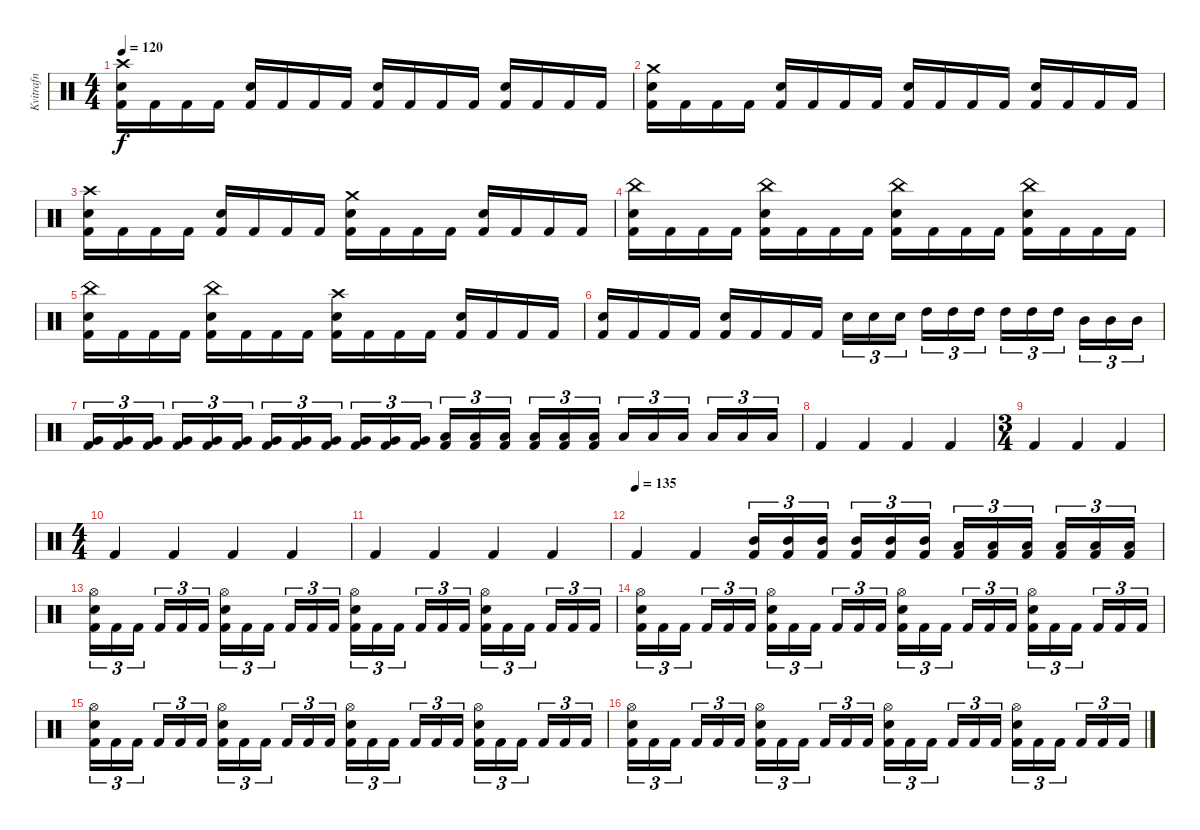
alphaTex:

\track ("Kvitrafn" "Kvitrafn") {instrument percussion}
\staff {score}
\articulation defaults
\ts (4 4)
\tempo 120
\clef neutral
\ks c
("Crash high (hit)" "Electric Snare (hit)" "Kick (hit) 2").16{dy f} "Kick (hit) 2".16 "Kick (hit) 2".16 "Kick (hit) 2".16 ("Electric Snare (hit)" "Kick (hit) 2").16 "Kick (hit) 2".16 "Kick (hit) 2".16 "Kick (hit) 2".16 ("Electric Snare (hit)" "Kick (hit) 2").16 "Kick (hit) 2".16 "Kick (hit) 2".16 "Kick (hit) 2".16 ("Electric Snare (hit)" "Kick (hit) 2").16 "Kick (hit) 2".16 "Kick (hit) 2".16 "Kick (hit) 2".16 |
("Crash medium (hit)" "Electric Snare (hit)" "Kick (hit) 2").16 "Kick (hit) 2".16 "Kick (hit) 2".16 "Kick (hit) 2".16 ("Electric Snare (hit)" "Kick (hit) 2").16 "Kick (hit) 2".16 "Kick (hit) 2".16 "Kick (hit) 2".16 ("Electric Snare (hit)" "Kick (hit) 2").16 "Kick (hit) 2".16 "Kick (hit) 2".16 "Kick (hit) 2".16 ("Electric Snare (hit)" "Kick (hit) 2").16 "Kick (hit) 2".16 "Kick (hit) 2".16 "Kick (hit) 2".16 |
("Crash high (hit)" "Electric Snare (hit)" "Kick (hit) 2").16 "Kick (hit) 2".16 "Kick (hit) 2".16 "Kick (hit) 2".16 ("Electric Snare (hit)" "Kick (hit) 2").16 "Kick (hit) 2".16 "Kick (hit) 2".16 "Kick (hit) 2".16 ("Crash medium (hit)" "Electric Snare (hit)" "Kick (hit) 2").16 "Kick (hit) 2".16 "Kick (hit) 2".16 "Kick (hit) 2".16 ("Electric Snare (hit)" "Kick (hit) 2").16 "Kick (hit) 2".16 "Kick (hit) 2".16 "Kick (hit) 2".16 |
("China (hit)" "Electric Snare (hit)" "Kick (hit) 2").16 "Kick (hit) 2".16 "Kick (hit) 2".16 "Kick (hit) 2".16 ("China (hit)" "Electric Snare (hit)" "Kick (hit) 2").16 "Kick (hit) 2".16 "Kick (hit) 2".16 "Kick (hit) 2".16 ("China (hit)" "Electric Snare (hit)" "Kick (hit) 2").16 "Kick (hit) 2".16 "Kick (hit) 2".16 "Kick (hit) 2".16 ("China (hit)" "Electric Snare (hit)" "Kick (hit) 2").16 "Kick (hit) 2".16 "Kick (hit) 2".16 "Kick (hit) 2".16 |
("China (hit)" "Electric Snare (hit)" "Kick (hit) 2").16 "Kick (hit) 2".16 "Kick (hit) 2".16 "Kick (hit) 2".16 ("China (hit)" "Electric Snare (hit)" "Kick (hit) 2").16 "Kick (hit) 2".16 "Kick (hit) 2".16 "Kick (hit) 2".16 ("Crash high (hit)" "Electric Snare (hit)" "Kick (hit) 2").16 "Kick (hit) 2".16 "Kick (hit) 2".16 "Kick (hit) 2".16 ("Electric Snare (hit)" "Kick (hit) 2").16 "Kick (hit) 2".16 "Kick (hit) 2".16 "Kick (hit) 2".16 |
("Electric Snare (hit)" "Kick (hit) 2").16 "Kick (hit) 2".16 "Kick (hit) 2".16 "Kick (hit) 2".16 ("Electric Snare (hit)" "Kick (hit) 2").16 "Kick (hit) 2".16 "Kick (hit) 2".16 "Kick (hit) 2".16 "Electric Snare (hit)".16{tu (3 2)} "Electric Snare (hit)".16{tu (3 2)} "Electric Snare (hit)".16{tu (3 2) beam splitsecondary} "High Tom (hit)".16{tu (3 2)} "High Tom (hit)".16{tu (3 2)} "High Tom (hit)".16{tu (3 2)} "High Tom (hit)".16{tu (3 2)} "High Tom (hit)".16{tu (3 2)} "High Tom (hit)".16{tu (3 2) beam splitsecondary} "Mid Tom (hit)".16{tu (3 2)} "Mid Tom (hit)".16{tu (3 2)} "Mid Tom (hit)".16{tu (3 2)} |
("Very Low Tom (hit)" "Kick (hit) 2").16{tu (3 2)} ("Very Low Tom (hit)" "Kick (hit) 2").16{tu (3 2)} ("Very Low Tom (hit)" "Kick (hit) 2").16{tu (3 2) beam splitsecondary} ("Very Low Tom (hit)" "Kick (hit) 2").16{tu (3 2)} ("Very Low Tom (hit)" "Kick (hit) 2").16{tu (3 2)} ("Very Low Tom (hit)" "Kick (hit) 2").16{tu (3 2)} ("Very Low Tom (hit)" "Kick (hit) 2").16{tu (3 2)} ("Very Low Tom (hit)" "Kick (hit) 2").16{tu (3 2)} ("Very Low Tom (hit)" "Kick (hit) 2").16{tu (3 2) beam splitsecondary} ("Very Low Tom (hit)" "Kick (hit) 2").16{tu (3 2)} ("Very Low Tom (hit)" "Kick (hit) 2").16{tu (3 2)} ("Very Low Tom (hit)" "Kick (hit) 2").16{tu (3 2)} ("Low Floor Tom (hit)" "Kick (hit) 2").16{tu (3 2)} ("Low Floor Tom (hit)" "Kick (hit) 2").16{tu (3 2)} ("Low Floor Tom (hit)" "Kick (hit) 2").16{tu (3 2) beam splitsecondary} ("Low Floor Tom (hit)" "Kick (hit) 2").16{tu (3 2)} ("Low Floor Tom (hit)" "Kick (hit) 2").16{tu (3 2)} ("Low Floor Tom (hit)" "Kick (hit) 2").16{tu (3 2)} "Low Tom (hit)".16{tu (3 2)} "Low Tom (hit)".16{tu (3 2)} "Low Tom (hit)".16{tu (3 2) beam splitsecondary} "Low Tom (hit)".16{tu (3 2)} "Low Tom (hit)".16{tu (3 2)} "Low Tom (hit)".16{tu (3 2)} |
"Kick (hit) 2".4 "Kick (hit) 2".4 "Kick (hit) 2".4 "Kick (hit) 2".4 |
\ts (3 4)
"Kick (hit) 2".4 "Kick (hit) 2".4 "Kick (hit) 2".4 |
\ts (4 4)
"Kick (hit) 2".4 "Kick (hit) 2".4 "Kick (hit) 2".4 "Kick (hit) 2".4 |
"Kick (hit) 2".4 "Kick (hit) 2".4 "Kick (hit) 2".4 "Kick (hit) 2".4 |
\tempo (135)
"Kick (hit) 2".4 "Kick (hit) 2".4 ("Mid Tom (hit)" "Kick (hit) 2").16{tu (3 2)} ("Mid Tom (hit)" "Kick (hit) 2").16{tu (3 2)} ("Mid Tom (hit)" "Kick (hit) 2").16{tu (3 2) beam splitsecondary} ("Mid Tom (hit)" "Kick (hit) 2").16{tu (3 2)} ("Mid Tom (hit)" "Kick (hit) 2").16{tu (3 2)} ("Mid Tom (hit)" "Kick (hit) 2").16{tu (3 2)} ("Low Tom (hit)" "Kick (hit) 2").16{tu (3 2)} ("Low Tom (hit)" "Kick (hit) 2").16{tu (3 2)} ("Low Tom (hit)" "Kick (hit) 2").16{tu (3 2) beam splitsecondary} ("Low Tom (hit)" "Kick (hit) 2").16{tu (3 2)} ("Low Tom (hit)" "Kick (hit) 2").16{tu (3 2)} ("Low Tom (hit)" "Kick (hit) 2").16{tu (3 2)} |
("Hi-Hat (open)" "Electric Snare (hit)" "Kick (hit) 2").16{tu (3 2)} "Kick (hit) 2".16{tu (3 2)} "Kick (hit) 2".16{tu (3 2) beam splitsecondary} "Kick (hit) 2".16{tu (3 2)} "Kick (hit) 2".16{tu (3 2)} "Kick (hit) 2".16{tu (3 2)} ("Hi-Hat (open)" "Electric Snare (hit)" "Kick (hit) 2").16{tu (3 2)} "Kick (hit) 2".16{tu (3 2)} "Kick (hit) 2".16{tu (3 2) beam splitsecondary} "Kick (hit) 2".16{tu (3 2)} "Kick (hit) 2".16{tu (3 2)} "Kick (hit) 2".16{tu (3 2)} ("Hi-Hat (open)" "Electric Snare (hit)" "Kick (hit) 2").16{tu (3 2)} "Kick (hit) 2".16{tu (3 2)} "Kick (hit) 2".16{tu (3 2) beam splitsecondary} "Kick (hit) 2".16{tu (3 2)} "Kick (hit) 2".16{tu (3 2)} "Kick (hit) 2".16{tu (3 2)} ("Hi-Hat (open)" "Electric Snare (hit)" "Kick (hit) 2").16{tu (3 2)} "Kick (hit) 2".16{tu (3 2)} "Kick (hit) 2".16{tu (3 2) beam splitsecondary} "Kick (hit) 2".16{tu (3 2)} "Kick (hit) 2".16{tu (3 2)} "Kick (hit) 2".16{tu (3 2)} |
("Hi-Hat (open)" "Electric Snare (hit)" "Kick (hit) 2").16{tu (3 2)} "Kick (hit) 2".16{tu (3 2)} "Kick (hit) 2".16{tu (3 2) beam splitsecondary} "Kick (hit) 2".16{tu (3 2)} "Kick (hit) 2".16{tu (3 2)} "Kick (hit) 2".16{tu (3 2)} ("Hi-Hat (open)" "Electric Snare (hit)" "Kick (hit) 2").16{tu (3 2)} "Kick (hit) 2".16{tu (3 2)} "Kick (hit) 2".16{tu (3 2) beam splitsecondary} "Kick (hit) 2".16{tu (3 2)} "Kick (hit) 2".16{tu (3 2)} "Kick (hit) 2".16{tu (3 2)} ("Hi-Hat (open)" "Electric Snare (hit)" "Kick (hit) 2").16{tu (3 2)} "Kick (hit) 2".16{tu (3 2)} "Kick (hit) 2".16{tu (3 2) beam splitsecondary} "Kick (hit) 2".16{tu (3 2)} "Kick (hit) 2".16{tu (3 2)} "Kick (hit) 2".16{tu (3 2)} ("Hi-Hat (open)" "Electric Snare (hit)" "Kick (hit) 2").16{tu (3 2)} "Kick (hit) 2".16{tu (3 2)} "Kick (hit) 2".16{tu (3 2) beam splitsecondary} "Kick (hit) 2".16{tu (3 2)} "Kick (hit) 2".16{tu (3 2)} "Kick (hit) 2".16{tu (3 2)} |
("Hi-Hat (open)" "Electric Snare (hit)" "Kick (hit) 2").16{tu (3 2)} "Kick (hit) 2".16{tu (3 2)} "Kick (hit) 2".16{tu (3 2) beam splitsecondary} "Kick (hit) 2".16{tu (3 2)} "Kick (hit) 2".16{tu (3 2)} "Kick (hit) 2".16{tu (3 2)} ("Hi-Hat (open)" "Electric Snare (hit)" "Kick (hit) 2").16{tu (3 2)} "Kick (hit) 2".16{tu (3 2)} "Kick (hit) 2".16{tu (3 2) beam splitsecondary} "Kick (hit) 2".16{tu (3 2)} "Kick (hit) 2".16{tu (3 2)} "Kick (hit) 2".16{tu (3 2)} ("Hi-Hat (open)" "Electric Snare (hit)" "Kick (hit) 2").16{tu (3 2)} "Kick (hit) 2".16{tu (3 2)} "Kick (hit) 2".16{tu (3 2) beam splitsecondary} "Kick (hit) 2".16{tu (3 2)} "Kick (hit) 2".16{tu (3 2)} "Kick (hit) 2".16{tu (3 2)} ("Hi-Hat (open)" "Electric Snare (hit)" "Kick (hit) 2").16{tu (3 2)} "Kick (hit) 2".16{tu (3 2)} "Kick (hit) 2".16{tu (3 2) beam splitsecondary} "Kick (hit) 2".16{tu (3 2)} "Kick (hit) 2".16{tu (3 2)} "Kick (hit) 2".16{tu (3 2)} |
("Hi-Hat (open)" "Electric Snare (hit)" "Kick (hit) 2").16{tu (3 2)} "Kick (hit) 2".16{tu (3 2)} "Kick (hit) 2".16{tu (3 2) beam splitsecondary} "Kick (hit) 2".16{tu (3 2)} "Kick (hit) 2".16{tu (3 2)} "Kick (hit) 2".16{tu (3 2)} ("Hi-Hat (open)" "Electric Snare (hit)" "Kick (hit) 2").16{tu (3 2)} "Kick (hit) 2".16{tu (3 2)} "Kick (hit) 2".16{tu (3 2) beam splitsecondary} "Kick (hit) 2".16{tu (3 2)} "Kick (hit) 2".16{tu (3 2)} "Kick (hit) 2".16{tu (3 2)} ("Hi-Hat (open)" "Electric Snare (hit)" "Kick (hit) 2").16{tu (3 2)} "Kick (hit) 2".16{tu (3 2)} "Kick (hit) 2".16{tu (3 2) beam splitsecondary} "Kick (hit) 2".16{tu (3 2)} "Kick (hit) 2".16{tu (3 2)} "Kick (hit) 2".16{tu (3 2)} ("Hi-Hat (open)" "Electric Snare (hit)" "Kick (hit) 2").16{tu (3 2)} "Kick (hit) 2".16{tu (3 2)} "Kick (hit) 2".16{tu (3 2) beam splitsecondary} "Kick (hit) 2".16{tu (3 2)} "Kick (hit) 2".16{tu (3 2)} "Kick (hit) 2".16{tu (3 2)}
